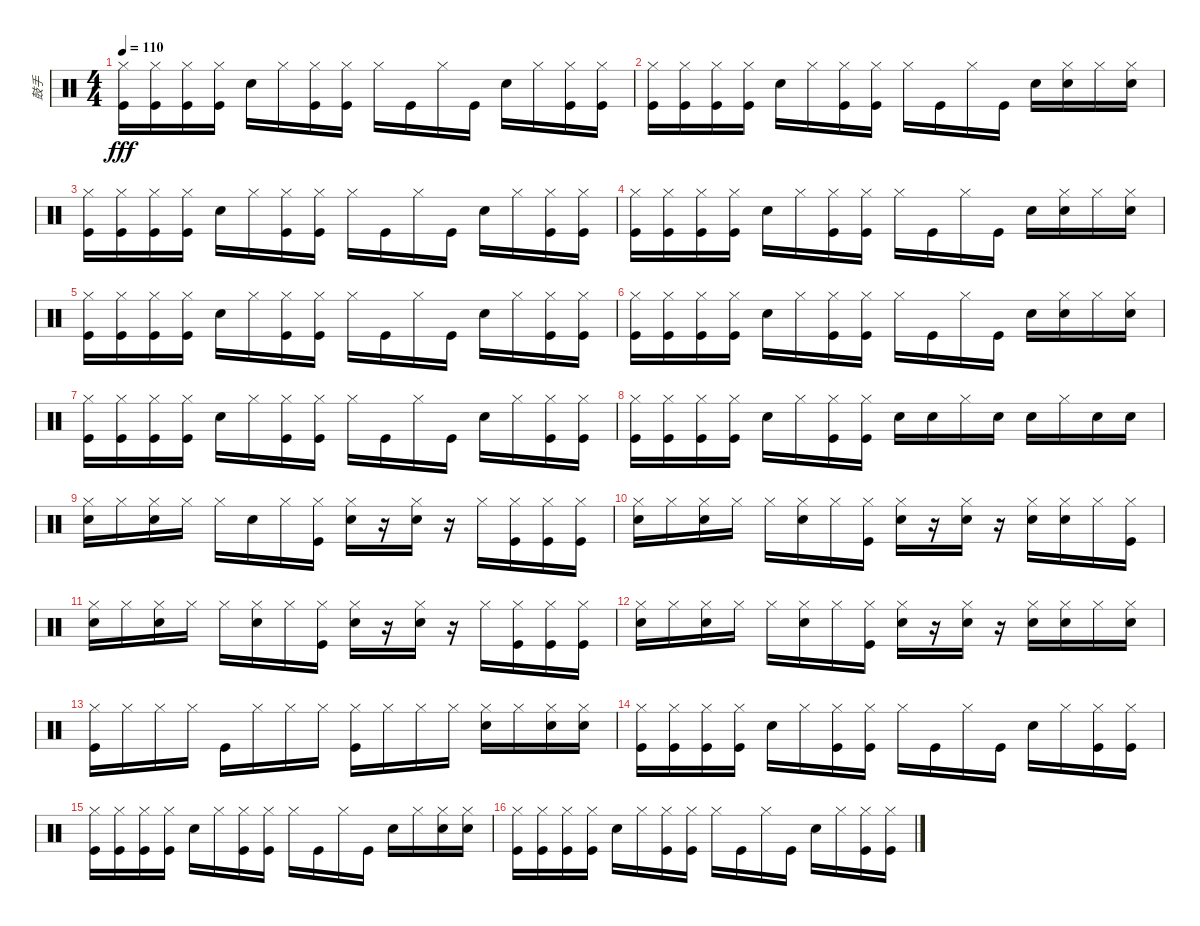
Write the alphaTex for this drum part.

\track ("鼓手" "鼓手") {instrument percussion}
\staff {score}
\articulation defaults
\ts (4 4)
\tempo 110
\clef neutral
\ks c
("Kick (hit)" "Hi-Hat (closed)").16{dy fff} ("Kick (hit)" "Hi-Hat (closed)").16 ("Kick (hit)" "Hi-Hat (closed)").16 ("Kick (hit)" "Hi-Hat (closed)").16 "Snare (hit) 2".16 "Hi-Hat (closed)".16 ("Kick (hit)" "Hi-Hat (closed)").16 ("Kick (hit)" "Hi-Hat (closed)").16 "Hi-Hat (closed)".16 "Kick (hit)".16 "Hi-Hat (closed)".16 "Kick (hit)".16 "Snare (hit) 2".16 "Hi-Hat (closed)".16 ("Kick (hit)" "Hi-Hat (closed)").16 ("Kick (hit)" "Hi-Hat (closed)").16 |
("Kick (hit)" "Hi-Hat (closed)").16 ("Kick (hit)" "Hi-Hat (closed)").16 ("Kick (hit)" "Hi-Hat (closed)").16 ("Kick (hit)" "Hi-Hat (closed)").16 "Snare (hit) 2".16 "Hi-Hat (closed)".16 ("Kick (hit)" "Hi-Hat (closed)").16 ("Kick (hit)" "Hi-Hat (closed)").16 "Hi-Hat (closed)".16 "Kick (hit)".16 "Hi-Hat (closed)".16 "Kick (hit)".16 "Snare (hit) 2".16 ("Snare (hit) 2" "Hi-Hat (closed)").16 "Hi-Hat (closed)".16 ("Snare (hit) 2" "Hi-Hat (closed)").16 |
("Kick (hit)" "Hi-Hat (closed)").16 ("Kick (hit)" "Hi-Hat (closed)").16 ("Kick (hit)" "Hi-Hat (closed)").16 ("Kick (hit)" "Hi-Hat (closed)").16 "Snare (hit) 2".16 "Hi-Hat (closed)".16 ("Kick (hit)" "Hi-Hat (closed)").16 ("Kick (hit)" "Hi-Hat (closed)").16 "Hi-Hat (closed)".16 "Kick (hit)".16 "Hi-Hat (closed)".16 "Kick (hit)".16 "Snare (hit) 2".16 "Hi-Hat (closed)".16 ("Kick (hit)" "Hi-Hat (closed)").16 ("Kick (hit)" "Hi-Hat (closed)").16 |
("Kick (hit)" "Hi-Hat (closed)").16 ("Kick (hit)" "Hi-Hat (closed)").16 ("Kick (hit)" "Hi-Hat (closed)").16 ("Kick (hit)" "Hi-Hat (closed)").16 "Snare (hit) 2".16 "Hi-Hat (closed)".16 ("Kick (hit)" "Hi-Hat (closed)").16 ("Kick (hit)" "Hi-Hat (closed)").16 "Hi-Hat (closed)".16 "Kick (hit)".16 "Hi-Hat (closed)".16 "Kick (hit)".16 "Snare (hit) 2".16 ("Snare (hit) 2" "Hi-Hat (closed)").16 "Hi-Hat (closed)".16 ("Snare (hit) 2" "Hi-Hat (closed)").16 |
("Kick (hit)" "Hi-Hat (closed)").16 ("Kick (hit)" "Hi-Hat (closed)").16 ("Kick (hit)" "Hi-Hat (closed)").16 ("Kick (hit)" "Hi-Hat (closed)").16 "Snare (hit) 2".16 "Hi-Hat (closed)".16 ("Kick (hit)" "Hi-Hat (closed)").16 ("Kick (hit)" "Hi-Hat (closed)").16 "Hi-Hat (closed)".16 "Kick (hit)".16 "Hi-Hat (closed)".16 "Kick (hit)".16 "Snare (hit) 2".16 "Hi-Hat (closed)".16 ("Kick (hit)" "Hi-Hat (closed)").16 ("Kick (hit)" "Hi-Hat (closed)").16 |
("Kick (hit)" "Hi-Hat (closed)").16 ("Kick (hit)" "Hi-Hat (closed)").16 ("Kick (hit)" "Hi-Hat (closed)").16 ("Kick (hit)" "Hi-Hat (closed)").16 "Snare (hit) 2".16 "Hi-Hat (closed)".16 ("Kick (hit)" "Hi-Hat (closed)").16 ("Kick (hit)" "Hi-Hat (closed)").16 "Hi-Hat (closed)".16 "Kick (hit)".16 "Hi-Hat (closed)".16 "Kick (hit)".16 "Snare (hit) 2".16 ("Snare (hit) 2" "Hi-Hat (closed)").16 "Hi-Hat (closed)".16 ("Snare (hit) 2" "Hi-Hat (closed)").16 |
("Kick (hit)" "Hi-Hat (closed)").16 ("Kick (hit)" "Hi-Hat (closed)").16 ("Kick (hit)" "Hi-Hat (closed)").16 ("Kick (hit)" "Hi-Hat (closed)").16 "Snare (hit) 2".16 "Hi-Hat (closed)".16 ("Kick (hit)" "Hi-Hat (closed)").16 ("Kick (hit)" "Hi-Hat (closed)").16 "Hi-Hat (closed)".16 "Kick (hit)".16 "Hi-Hat (closed)".16 "Kick (hit)".16 "Snare (hit) 2".16 "Hi-Hat (closed)".16 ("Kick (hit)" "Hi-Hat (closed)").16 ("Kick (hit)" "Hi-Hat (closed)").16 |
("Kick (hit)" "Hi-Hat (closed)").16 ("Kick (hit)" "Hi-Hat (closed)").16 ("Kick (hit)" "Hi-Hat (closed)").16 ("Kick (hit)" "Hi-Hat (closed)").16 "Snare (hit) 2".16 "Hi-Hat (closed)".16 ("Kick (hit)" "Hi-Hat (closed)").16 ("Kick (hit)" "Hi-Hat (closed)").16 "Snare (hit) 2".16 "Snare (hit) 2".16 "Hi-Hat (closed)".16 "Snare (hit) 2".16 "Snare (hit) 2".16 "Hi-Hat (closed)".16 "Snare (hit) 2".16 "Snare (hit) 2".16 |
("Snare (hit) 2" "Hi-Hat (closed)").16 "Hi-Hat (closed)".16 ("Snare (hit) 2" "Hi-Hat (closed)").16 "Hi-Hat (closed)".16 "Hi-Hat (closed)".16 "Snare (hit) 2".16 "Hi-Hat (closed)".16 ("Kick (hit)" "Hi-Hat (closed)").16 ("Snare (hit) 2" "Hi-Hat (closed)").16 r.16 ("Snare (hit) 2" "Hi-Hat (closed)").16 r.16 "Hi-Hat (closed)".16 ("Kick (hit)" "Hi-Hat (closed)").16 ("Kick (hit)" "Hi-Hat (closed)").16 ("Kick (hit)" "Hi-Hat (closed)").16 |
("Snare (hit) 2" "Hi-Hat (closed)").16 "Hi-Hat (closed)".16 ("Snare (hit) 2" "Hi-Hat (closed)").16 "Hi-Hat (closed)".16 "Hi-Hat (closed)".16 ("Snare (hit) 2" "Hi-Hat (closed)").16 "Hi-Hat (closed)".16 ("Kick (hit)" "Hi-Hat (closed)").16 ("Snare (hit) 2" "Hi-Hat (closed)").16 r.16 ("Snare (hit) 2" "Hi-Hat (closed)").16 r.16 ("Snare (hit) 2" "Hi-Hat (closed)").16 ("Snare (hit) 2" "Hi-Hat (closed)").16 "Hi-Hat (closed)".16 ("Kick (hit)" "Hi-Hat (closed)").16 |
("Snare (hit) 2" "Hi-Hat (closed)").16 "Hi-Hat (closed)".16 ("Snare (hit) 2" "Hi-Hat (closed)").16 "Hi-Hat (closed)".16 "Hi-Hat (closed)".16 ("Snare (hit) 2" "Hi-Hat (closed)").16 "Hi-Hat (closed)".16 ("Kick (hit)" "Hi-Hat (closed)").16 ("Snare (hit) 2" "Hi-Hat (closed)").16 r.16 ("Snare (hit) 2" "Hi-Hat (closed)").16 r.16 "Hi-Hat (closed)".16 ("Kick (hit)" "Hi-Hat (closed)").16 ("Kick (hit)" "Hi-Hat (closed)").16 ("Kick (hit)" "Hi-Hat (closed)").16 |
("Snare (hit) 2" "Hi-Hat (closed)").16 "Hi-Hat (closed)".16 ("Snare (hit) 2" "Hi-Hat (closed)").16 "Hi-Hat (closed)".16 "Hi-Hat (closed)".16 ("Snare (hit) 2" "Hi-Hat (closed)").16 "Hi-Hat (closed)".16 ("Kick (hit)" "Hi-Hat (closed)").16 ("Snare (hit) 2" "Hi-Hat (closed)").16 r.16 ("Snare (hit) 2" "Hi-Hat (closed)").16 r.16 ("Snare (hit) 2" "Hi-Hat (closed)").16 ("Snare (hit) 2" "Hi-Hat (closed)").16 "Hi-Hat (closed)".16 ("Snare (hit) 2" "Hi-Hat (closed)").16 |
("Kick (hit)" "Hi-Hat (closed)").16 "Hi-Hat (closed)".16 "Hi-Hat (closed)".16 "Hi-Hat (closed)".16 "Kick (hit)".16 "Hi-Hat (closed)".16 "Hi-Hat (closed)".16 "Hi-Hat (closed)".16 ("Kick (hit)" "Hi-Hat (closed)").16 "Hi-Hat (closed)".16 "Hi-Hat (closed)".16 "Hi-Hat (closed)".16 ("Snare (hit) 2" "Hi-Hat (closed)").16 "Hi-Hat (closed)".16 ("Snare (hit) 2" "Hi-Hat (closed)").16 ("Snare (hit) 2" "Hi-Hat (closed)").16 |
("Kick (hit)" "Hi-Hat (closed)").16 ("Kick (hit)" "Hi-Hat (closed)").16 ("Kick (hit)" "Hi-Hat (closed)").16 ("Kick (hit)" "Hi-Hat (closed)").16 "Snare (hit) 2".16 "Hi-Hat (closed)".16 ("Kick (hit)" "Hi-Hat (closed)").16 ("Kick (hit)" "Hi-Hat (closed)").16 "Hi-Hat (closed)".16 "Kick (hit)".16 "Hi-Hat (closed)".16 "Kick (hit)".16 "Snare (hit) 2".16 "Hi-Hat (closed)".16 ("Kick (hit)" "Hi-Hat (closed)").16 ("Kick (hit)" "Hi-Hat (closed)").16 |
("Kick (hit)" "Hi-Hat (closed)").16 ("Kick (hit)" "Hi-Hat (closed)").16 ("Kick (hit)" "Hi-Hat (closed)").16 ("Kick (hit)" "Hi-Hat (closed)").16 "Snare (hit) 2".16 "Hi-Hat (closed)".16 ("Kick (hit)" "Hi-Hat (closed)").16 ("Kick (hit)" "Hi-Hat (closed)").16 "Hi-Hat (closed)".16 "Kick (hit)".16 "Hi-Hat (closed)".16 "Kick (hit)".16 "Snare (hit) 2".16 "Hi-Hat (closed)".16 ("Snare (hit) 2" "Hi-Hat (closed)").16 ("Snare (hit) 2" "Hi-Hat (closed)").16 |
("Kick (hit)" "Hi-Hat (closed)").16 ("Kick (hit)" "Hi-Hat (closed)").16 ("Kick (hit)" "Hi-Hat (closed)").16 ("Kick (hit)" "Hi-Hat (closed)").16 "Snare (hit) 2".16 "Hi-Hat (closed)".16 ("Kick (hit)" "Hi-Hat (closed)").16 ("Kick (hit)" "Hi-Hat (closed)").16 "Hi-Hat (closed)".16 "Kick (hit)".16 "Hi-Hat (closed)".16 "Kick (hit)".16 "Snare (hit) 2".16 "Hi-Hat (closed)".16 ("Kick (hit)" "Hi-Hat (closed)").16 ("Kick (hit)" "Hi-Hat (closed)").16
